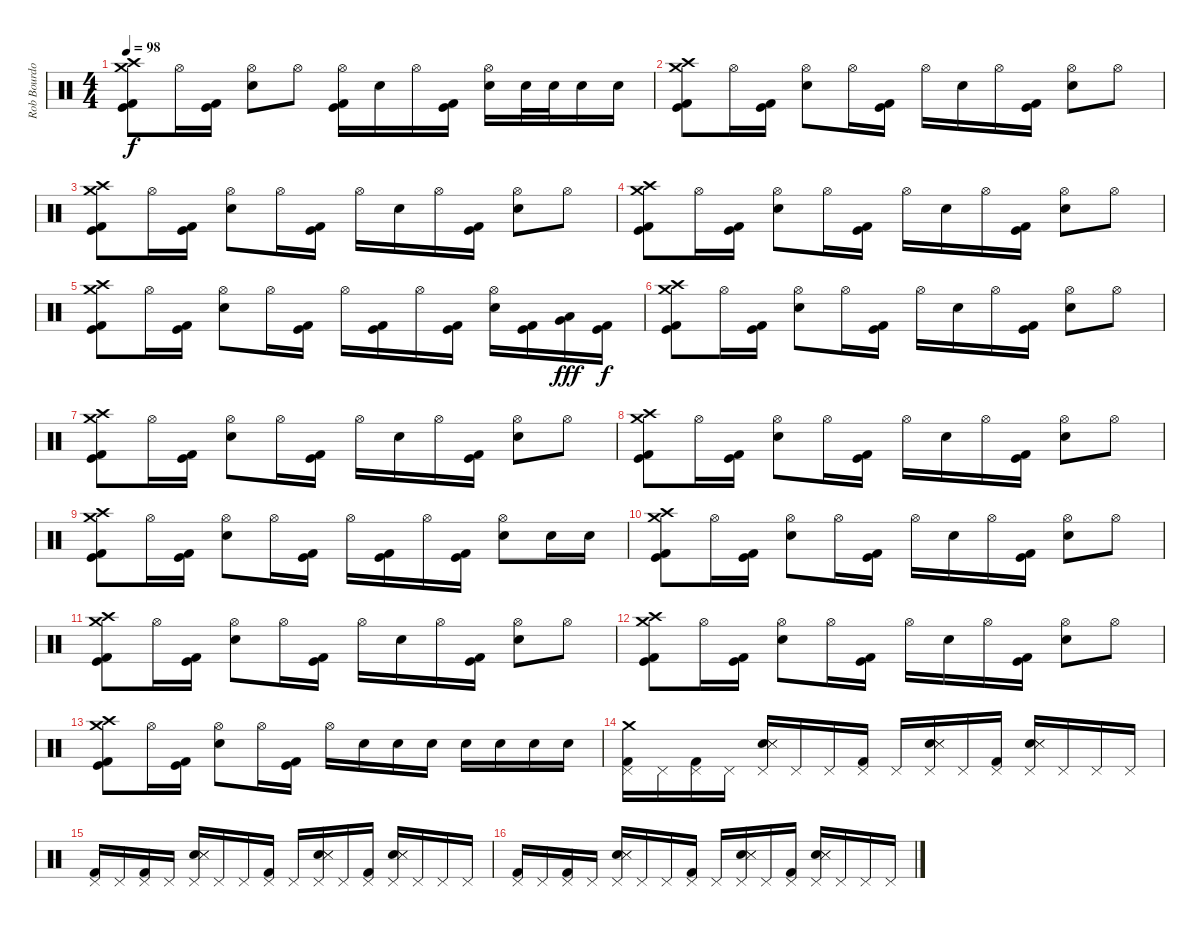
\track ("Rob Bourdon (Drums)" "Rob Bourdo") {instrument percussion}
\staff {score}
\articulation defaults
\ts (4 4)
\tempo 98
\clef neutral
\ks c
("Crash medium (hit)" "Crash high (hit)" "Kick (hit)" "Kick (hit) 2").8{dy f} "Hi-Hat (open)".16 ("Kick (hit)" "Kick (hit) 2").16 ("Hi-Hat (open)" "Electric Snare (hit)").8 "Hi-Hat (open)".8 ("Hi-Hat (open)" "Kick (hit)" "Kick (hit) 2").16 "Electric Snare (hit)".16 "Hi-Hat (open)".16 ("Kick (hit)" "Kick (hit) 2").16 ("Hi-Hat (open)" "Electric Snare (hit)").16 "Electric Snare (hit)".32 "Electric Snare (hit)".32 "Electric Snare (hit)".16 "Electric Snare (hit)".16 |
("Crash medium (hit)" "Crash high (hit)" "Kick (hit)" "Kick (hit) 2").8 "Hi-Hat (open)".16 ("Kick (hit)" "Kick (hit) 2").16 ("Hi-Hat (open)" "Electric Snare (hit)").8 "Hi-Hat (open)".16 ("Kick (hit)" "Kick (hit) 2").16 "Hi-Hat (open)".16 "Electric Snare (hit)".16 "Hi-Hat (open)".16 ("Kick (hit)" "Kick (hit) 2").16 ("Hi-Hat (open)" "Electric Snare (hit)").8 "Hi-Hat (open)".8 |
("Crash medium (hit)" "Crash high (hit)" "Kick (hit)" "Kick (hit) 2").8 "Hi-Hat (open)".16 ("Kick (hit)" "Kick (hit) 2").16 ("Hi-Hat (open)" "Electric Snare (hit)").8 "Hi-Hat (open)".16 ("Kick (hit)" "Kick (hit) 2").16 "Hi-Hat (open)".16 "Electric Snare (hit)".16 "Hi-Hat (open)".16 ("Kick (hit)" "Kick (hit) 2").16 ("Hi-Hat (open)" "Electric Snare (hit)").8 "Hi-Hat (open)".8 |
("Crash medium (hit)" "Crash high (hit)" "Kick (hit)" "Kick (hit) 2").8 "Hi-Hat (open)".16 ("Kick (hit)" "Kick (hit) 2").16 ("Hi-Hat (open)" "Electric Snare (hit)").8 "Hi-Hat (open)".16 ("Kick (hit)" "Kick (hit) 2").16 "Hi-Hat (open)".16 "Electric Snare (hit)".16 "Hi-Hat (open)".16 ("Kick (hit)" "Kick (hit) 2").16 ("Hi-Hat (open)" "Electric Snare (hit)").8 "Hi-Hat (open)".8 |
("Crash medium (hit)" "Crash high (hit)" "Kick (hit)" "Kick (hit) 2").8 "Hi-Hat (open)".16 ("Kick (hit)" "Kick (hit) 2").16 ("Hi-Hat (open)" "Electric Snare (hit)").8 "Hi-Hat (open)".16 ("Kick (hit)" "Kick (hit) 2").16 "Hi-Hat (open)".16 ("Kick (hit)" "Kick (hit) 2").16 "Hi-Hat (open)".16 ("Kick (hit)" "Kick (hit) 2").16 ("Hi-Hat (open)" "Electric Snare (hit)").16 ("Kick (hit)" "Kick (hit) 2").16 ("Low Tom (hit)" "Very Low Tom (hit)").16{dy fff} ("Kick (hit)" "Kick (hit) 2").16{dy f} |
("Crash medium (hit)" "Crash high (hit)" "Kick (hit)" "Kick (hit) 2").8 "Hi-Hat (open)".16 ("Kick (hit)" "Kick (hit) 2").16 ("Hi-Hat (open)" "Electric Snare (hit)").8 "Hi-Hat (open)".16 ("Kick (hit)" "Kick (hit) 2").16 "Hi-Hat (open)".16 "Electric Snare (hit)".16 "Hi-Hat (open)".16 ("Kick (hit)" "Kick (hit) 2").16 ("Hi-Hat (open)" "Electric Snare (hit)").8 "Hi-Hat (open)".8 |
("Crash medium (hit)" "Crash high (hit)" "Kick (hit)" "Kick (hit) 2").8 "Hi-Hat (open)".16 ("Kick (hit)" "Kick (hit) 2").16 ("Hi-Hat (open)" "Electric Snare (hit)").8 "Hi-Hat (open)".16 ("Kick (hit)" "Kick (hit) 2").16 "Hi-Hat (open)".16 "Electric Snare (hit)".16 "Hi-Hat (open)".16 ("Kick (hit)" "Kick (hit) 2").16 ("Hi-Hat (open)" "Electric Snare (hit)").8 "Hi-Hat (open)".8 |
("Crash medium (hit)" "Crash high (hit)" "Kick (hit)" "Kick (hit) 2").8 "Hi-Hat (open)".16 ("Kick (hit)" "Kick (hit) 2").16 ("Hi-Hat (open)" "Electric Snare (hit)").8 "Hi-Hat (open)".16 ("Kick (hit)" "Kick (hit) 2").16 "Hi-Hat (open)".16 "Electric Snare (hit)".16 "Hi-Hat (open)".16 ("Kick (hit)" "Kick (hit) 2").16 ("Hi-Hat (open)" "Electric Snare (hit)").8 "Hi-Hat (open)".8 |
("Crash medium (hit)" "Crash high (hit)" "Kick (hit)" "Kick (hit) 2").8 "Hi-Hat (open)".16 ("Kick (hit)" "Kick (hit) 2").16 ("Hi-Hat (open)" "Electric Snare (hit)").8 "Hi-Hat (open)".16 ("Kick (hit)" "Kick (hit) 2").16 "Hi-Hat (open)".16 ("Kick (hit)" "Kick (hit) 2").16 "Hi-Hat (open)".16 ("Kick (hit)" "Kick (hit) 2").16 ("Hi-Hat (open)" "Electric Snare (hit)").8 "Electric Snare (hit)".16 "Electric Snare (hit)".16 |
("Crash medium (hit)" "Crash high (hit)" "Kick (hit)" "Kick (hit) 2").8 "Hi-Hat (open)".16 ("Kick (hit)" "Kick (hit) 2").16 ("Hi-Hat (open)" "Electric Snare (hit)").8 "Hi-Hat (open)".16 ("Kick (hit)" "Kick (hit) 2").16 "Hi-Hat (open)".16 "Electric Snare (hit)".16 "Hi-Hat (open)".16 ("Kick (hit)" "Kick (hit) 2").16 ("Hi-Hat (open)" "Electric Snare (hit)").8 "Hi-Hat (open)".8 |
("Crash medium (hit)" "Crash high (hit)" "Kick (hit)" "Kick (hit) 2").8 "Hi-Hat (open)".16 ("Kick (hit)" "Kick (hit) 2").16 ("Hi-Hat (open)" "Electric Snare (hit)").8 "Hi-Hat (open)".16 ("Kick (hit)" "Kick (hit) 2").16 "Hi-Hat (open)".16 "Electric Snare (hit)".16 "Hi-Hat (open)".16 ("Kick (hit)" "Kick (hit) 2").16 ("Hi-Hat (open)" "Electric Snare (hit)").8 "Hi-Hat (open)".8 |
("Crash medium (hit)" "Crash high (hit)" "Kick (hit)" "Kick (hit) 2").8 "Hi-Hat (open)".16 ("Kick (hit)" "Kick (hit) 2").16 ("Hi-Hat (open)" "Electric Snare (hit)").8 "Hi-Hat (open)".16 ("Kick (hit)" "Kick (hit) 2").16 "Hi-Hat (open)".16 "Electric Snare (hit)".16 "Hi-Hat (open)".16 ("Kick (hit)" "Kick (hit) 2").16 ("Hi-Hat (open)" "Electric Snare (hit)").8 "Hi-Hat (open)".8 |
("Crash medium (hit)" "Crash high (hit)" "Kick (hit)" "Kick (hit) 2").8 "Hi-Hat (open)".16 ("Kick (hit)" "Kick (hit) 2").16 ("Hi-Hat (open)" "Electric Snare (hit)").8 "Hi-Hat (open)".16 ("Kick (hit)" "Kick (hit) 2").16 "Hi-Hat (open)".16 "Electric Snare (hit)".16 "Electric Snare (hit)".16 "Electric Snare (hit)".16 "Electric Snare (hit)".16 "Electric Snare (hit)".16 "Electric Snare (hit)".16 "Electric Snare (hit)".16 |
("Crash medium (hit)" "Pedal Hi-Hat (hit)" "Kick (hit) 2").16{volume 6} "Pedal Hi-Hat (hit)".16{volume 5} ("Pedal Hi-Hat (hit)" "Kick (hit) 2").16 "Pedal Hi-Hat (hit)".16 ("Pedal Hi-Hat (hit)" "Electric Snare (hit)" "Snare (side stick) 3" "Metronome (hit)").16 "Pedal Hi-Hat (hit)".16 "Pedal Hi-Hat (hit)".16 ("Pedal Hi-Hat (hit)" "Kick (hit) 2").16 "Pedal Hi-Hat (hit)".16 ("Pedal Hi-Hat (hit)" "Electric Snare (hit)" "Snare (side stick) 3" "Metronome (hit)").16 "Pedal Hi-Hat (hit)".16 ("Pedal Hi-Hat (hit)" "Kick (hit) 2").16 ("Pedal Hi-Hat (hit)" "Electric Snare (hit)" "Snare (side stick) 3" "Metronome (hit)").16 "Pedal Hi-Hat (hit)".16 "Pedal Hi-Hat (hit)".16 "Pedal Hi-Hat (hit)".16 |
("Pedal Hi-Hat (hit)" "Kick (hit) 2").16{volume 4} "Pedal Hi-Hat (hit)".16 ("Pedal Hi-Hat (hit)" "Kick (hit) 2").16 "Pedal Hi-Hat (hit)".16 ("Pedal Hi-Hat (hit)" "Electric Snare (hit)" "Snare (side stick) 3" "Metronome (hit)").16 "Pedal Hi-Hat (hit)".16 "Pedal Hi-Hat (hit)".16 ("Pedal Hi-Hat (hit)" "Kick (hit) 2").16 "Pedal Hi-Hat (hit)".16 ("Pedal Hi-Hat (hit)" "Electric Snare (hit)" "Snare (side stick) 3" "Metronome (hit)").16 "Pedal Hi-Hat (hit)".16 ("Pedal Hi-Hat (hit)" "Kick (hit) 2").16 ("Pedal Hi-Hat (hit)" "Electric Snare (hit)" "Snare (side stick) 3" "Metronome (hit)").16 "Pedal Hi-Hat (hit)".16 "Pedal Hi-Hat (hit)".16 "Pedal Hi-Hat (hit)".16 |
("Pedal Hi-Hat (hit)" "Kick (hit) 2").16{volume 3} "Pedal Hi-Hat (hit)".16 ("Pedal Hi-Hat (hit)" "Kick (hit) 2").16 "Pedal Hi-Hat (hit)".16 ("Pedal Hi-Hat (hit)" "Electric Snare (hit)" "Snare (side stick) 3" "Metronome (hit)").16 "Pedal Hi-Hat (hit)".16 "Pedal Hi-Hat (hit)".16 ("Pedal Hi-Hat (hit)" "Kick (hit) 2").16 "Pedal Hi-Hat (hit)".16 ("Pedal Hi-Hat (hit)" "Electric Snare (hit)" "Snare (side stick) 3" "Metronome (hit)").16 "Pedal Hi-Hat (hit)".16 ("Pedal Hi-Hat (hit)" "Kick (hit) 2").16 ("Pedal Hi-Hat (hit)" "Electric Snare (hit)" "Snare (side stick) 3" "Metronome (hit)").16 "Pedal Hi-Hat (hit)".16 "Pedal Hi-Hat (hit)".16 "Pedal Hi-Hat (hit)".16
